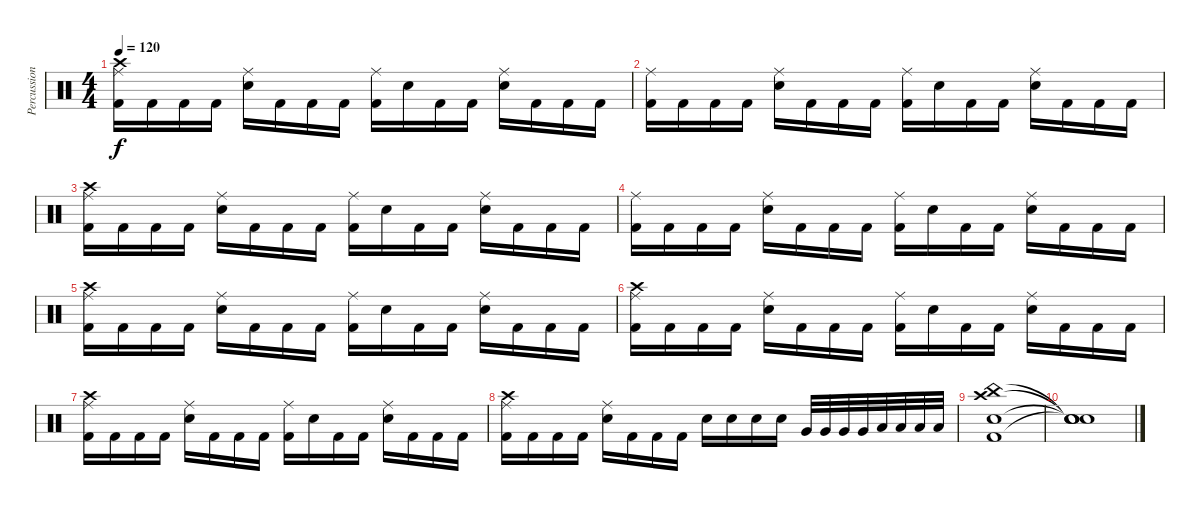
\track ("Percussion" "Percussion") {instrument percussion}
\staff {score}
\articulation defaults
\ts (4 4)
\tempo 120
\clef neutral
\ks c
("Ride (middle)" "Crash high (hit)" "Kick (hit) 2").16{dy f} "Kick (hit) 2".16 "Kick (hit) 2".16 "Kick (hit) 2".16 ("Ride (middle)" "Snare (hit) 2").16 "Kick (hit) 2".16 "Kick (hit) 2".16 "Kick (hit) 2".16 ("Ride (middle)" "Kick (hit) 2").16 "Snare (hit) 2".16 "Kick (hit) 2".16 "Kick (hit) 2".16 ("Ride (middle)" "Snare (hit) 2").16 "Kick (hit) 2".16 "Kick (hit) 2".16 "Kick (hit) 2".16 |
("Ride (middle)" "Kick (hit) 2").16 "Kick (hit) 2".16 "Kick (hit) 2".16 "Kick (hit) 2".16 ("Ride (middle)" "Snare (hit) 2").16 "Kick (hit) 2".16 "Kick (hit) 2".16 "Kick (hit) 2".16 ("Ride (middle)" "Kick (hit) 2").16 "Snare (hit) 2".16 "Kick (hit) 2".16 "Kick (hit) 2".16 ("Ride (middle)" "Snare (hit) 2").16 "Kick (hit) 2".16 "Kick (hit) 2".16 "Kick (hit) 2".16 |
("Ride (middle)" "Crash high (hit)" "Kick (hit) 2").16 "Kick (hit) 2".16 "Kick (hit) 2".16 "Kick (hit) 2".16 ("Ride (middle)" "Snare (hit) 2").16 "Kick (hit) 2".16 "Kick (hit) 2".16 "Kick (hit) 2".16 ("Ride (middle)" "Kick (hit) 2").16 "Snare (hit) 2".16 "Kick (hit) 2".16 "Kick (hit) 2".16 ("Ride (middle)" "Snare (hit) 2").16 "Kick (hit) 2".16 "Kick (hit) 2".16 "Kick (hit) 2".16 |
("Ride (middle)" "Kick (hit) 2").16 "Kick (hit) 2".16 "Kick (hit) 2".16 "Kick (hit) 2".16 ("Ride (middle)" "Snare (hit) 2").16 "Kick (hit) 2".16 "Kick (hit) 2".16 "Kick (hit) 2".16 ("Ride (middle)" "Kick (hit) 2").16 "Snare (hit) 2".16 "Kick (hit) 2".16 "Kick (hit) 2".16 ("Ride (middle)" "Snare (hit) 2").16 "Kick (hit) 2".16 "Kick (hit) 2".16 "Kick (hit) 2".16 |
("Ride (middle)" "Crash high (hit)" "Kick (hit) 2").16 "Kick (hit) 2".16 "Kick (hit) 2".16 "Kick (hit) 2".16 ("Ride (middle)" "Snare (hit) 2").16 "Kick (hit) 2".16 "Kick (hit) 2".16 "Kick (hit) 2".16 ("Ride (middle)" "Kick (hit) 2").16 "Snare (hit) 2".16 "Kick (hit) 2".16 "Kick (hit) 2".16 ("Ride (middle)" "Snare (hit) 2").16 "Kick (hit) 2".16 "Kick (hit) 2".16 "Kick (hit) 2".16 |
("Ride (middle)" "Crash high (hit)" "Kick (hit) 2").16 "Kick (hit) 2".16 "Kick (hit) 2".16 "Kick (hit) 2".16 ("Ride (middle)" "Snare (hit) 2").16 "Kick (hit) 2".16 "Kick (hit) 2".16 "Kick (hit) 2".16 ("Ride (middle)" "Kick (hit) 2").16 "Snare (hit) 2".16 "Kick (hit) 2".16 "Kick (hit) 2".16 ("Ride (middle)" "Snare (hit) 2").16 "Kick (hit) 2".16 "Kick (hit) 2".16 "Kick (hit) 2".16 |
("Ride (middle)" "Crash high (hit)" "Kick (hit) 2").16 "Kick (hit) 2".16 "Kick (hit) 2".16 "Kick (hit) 2".16 ("Ride (middle)" "Snare (hit) 2").16 "Kick (hit) 2".16 "Kick (hit) 2".16 "Kick (hit) 2".16 ("Ride (middle)" "Kick (hit) 2").16 "Snare (hit) 2".16 "Kick (hit) 2".16 "Kick (hit) 2".16 ("Ride (middle)" "Snare (hit) 2").16 "Kick (hit) 2".16 "Kick (hit) 2".16 "Kick (hit) 2".16 |
("Ride (middle)" "Crash high (hit)" "Kick (hit) 2").16 "Kick (hit) 2".16 "Kick (hit) 2".16 "Kick (hit) 2".16 ("Ride (middle)" "Snare (hit) 2").16 "Kick (hit) 2".16 "Kick (hit) 2".16 "Kick (hit) 2".16 "Snare (hit) 2".16 "Snare (hit) 2".16 "Snare (hit) 2".16 "Snare (hit) 2".16 "Very Low Tom (hit)".32 "Very Low Tom (hit)".32 "Very Low Tom (hit)".32 "Very Low Tom (hit)".32 "Low Floor Tom (hit)".32 "Low Floor Tom (hit)".32 "Low Floor Tom (hit)".32 "Low Floor Tom (hit)".32 |
("Crash high (hit)" "China (hit)" "Snare (hit) 2" "Kick (hit) 2").1 |
("Snare (hit)"{t} "Snare (hit)"{t} "Snare (hit)"{t} "Snare (hit)"{t}).1
